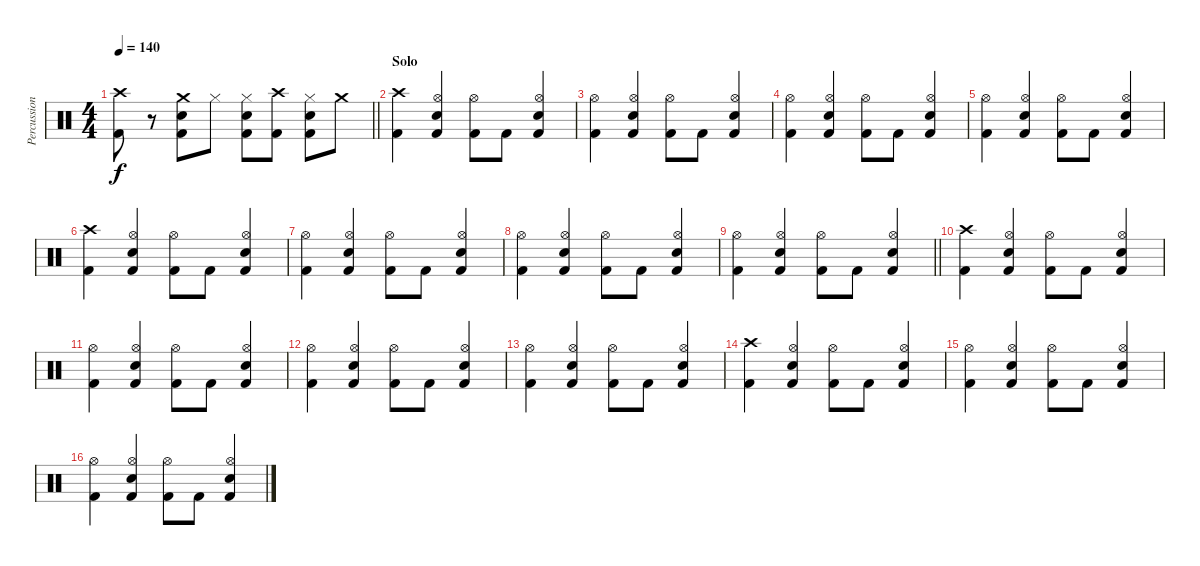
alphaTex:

\track ("Percussions" "Percussion") {instrument percussion}
\staff {score}
\articulation defaults
\ts (4 4)
\tempo 140
\clef neutral
\barLineRight lightlight
\ks c
("Crash high (hit)" "Kick (hit) 2").8{dy f} r.8 ("Crash medium (hit)" "Snare (hit) 2" "Kick (hit) 2").8 "Hi-Hat (closed)".8 ("Hi-Hat (closed)" "Snare (hit) 2" "Kick (hit) 2").8 ("Crash high (hit)" "Kick (hit) 2").8 ("Hi-Hat (closed)" "Snare (hit) 2" "Kick (hit) 2").8 "Crash medium (hit)".8 |
\section ("" "Solo")
("Crash high (hit)" "Kick (hit) 2").4 ("Hi-Hat (open)" "Electric Snare (hit)" "Kick (hit) 2").4 ("Hi-Hat (open)" "Kick (hit) 2").8 "Kick (hit) 2".8 ("Hi-Hat (open)" "Electric Snare (hit)" "Kick (hit) 2").4 |
("Hi-Hat (open)" "Kick (hit) 2").4 ("Hi-Hat (open)" "Electric Snare (hit)" "Kick (hit) 2").4 ("Hi-Hat (open)" "Kick (hit) 2").8 "Kick (hit) 2".8 ("Hi-Hat (open)" "Electric Snare (hit)" "Kick (hit) 2").4 |
("Hi-Hat (open)" "Kick (hit) 2").4 ("Hi-Hat (open)" "Electric Snare (hit)" "Kick (hit) 2").4 ("Hi-Hat (open)" "Kick (hit) 2").8 "Kick (hit) 2".8 ("Hi-Hat (open)" "Electric Snare (hit)" "Kick (hit) 2").4 |
("Hi-Hat (open)" "Kick (hit) 2").4 ("Hi-Hat (open)" "Electric Snare (hit)" "Kick (hit) 2").4 ("Hi-Hat (open)" "Kick (hit) 2").8 "Kick (hit) 2".8 ("Hi-Hat (open)" "Electric Snare (hit)" "Kick (hit) 2").4 |
("Crash high (hit)" "Kick (hit) 2").4 ("Hi-Hat (open)" "Electric Snare (hit)" "Kick (hit) 2").4 ("Hi-Hat (open)" "Kick (hit) 2").8 "Kick (hit) 2".8 ("Hi-Hat (open)" "Electric Snare (hit)" "Kick (hit) 2").4 |
("Hi-Hat (open)" "Kick (hit) 2").4 ("Hi-Hat (open)" "Electric Snare (hit)" "Kick (hit) 2").4 ("Hi-Hat (open)" "Kick (hit) 2").8 "Kick (hit) 2".8 ("Hi-Hat (open)" "Electric Snare (hit)" "Kick (hit) 2").4 |
("Hi-Hat (open)" "Kick (hit) 2").4 ("Hi-Hat (open)" "Electric Snare (hit)" "Kick (hit) 2").4 ("Hi-Hat (open)" "Kick (hit) 2").8 "Kick (hit) 2".8 ("Hi-Hat (open)" "Electric Snare (hit)" "Kick (hit) 2").4 |
\barLineRight lightlight
("Hi-Hat (open)" "Kick (hit) 2").4 ("Hi-Hat (open)" "Electric Snare (hit)" "Kick (hit) 2").4 ("Hi-Hat (open)" "Kick (hit) 2").8 "Kick (hit) 2".8 ("Hi-Hat (open)" "Electric Snare (hit)" "Kick (hit) 2").4 |
("Crash high (hit)" "Kick (hit) 2").4 ("Hi-Hat (open)" "Electric Snare (hit)" "Kick (hit) 2").4 ("Hi-Hat (open)" "Kick (hit) 2").8 "Kick (hit) 2".8 ("Hi-Hat (open)" "Electric Snare (hit)" "Kick (hit) 2").4 |
("Hi-Hat (open)" "Kick (hit) 2").4 ("Hi-Hat (open)" "Electric Snare (hit)" "Kick (hit) 2").4 ("Hi-Hat (open)" "Kick (hit) 2").8 "Kick (hit) 2".8 ("Hi-Hat (open)" "Electric Snare (hit)" "Kick (hit) 2").4 |
("Hi-Hat (open)" "Kick (hit) 2").4 ("Hi-Hat (open)" "Electric Snare (hit)" "Kick (hit) 2").4 ("Hi-Hat (open)" "Kick (hit) 2").8 "Kick (hit) 2".8 ("Hi-Hat (open)" "Electric Snare (hit)" "Kick (hit) 2").4 |
("Hi-Hat (open)" "Kick (hit) 2").4 ("Hi-Hat (open)" "Electric Snare (hit)" "Kick (hit) 2").4 ("Hi-Hat (open)" "Kick (hit) 2").8 "Kick (hit) 2".8 ("Hi-Hat (open)" "Electric Snare (hit)" "Kick (hit) 2").4 |
("Crash high (hit)" "Kick (hit) 2").4 ("Hi-Hat (open)" "Electric Snare (hit)" "Kick (hit) 2").4 ("Hi-Hat (open)" "Kick (hit) 2").8 "Kick (hit) 2".8 ("Hi-Hat (open)" "Electric Snare (hit)" "Kick (hit) 2").4 |
("Hi-Hat (open)" "Kick (hit) 2").4 ("Hi-Hat (open)" "Electric Snare (hit)" "Kick (hit) 2").4 ("Hi-Hat (open)" "Kick (hit) 2").8 "Kick (hit) 2".8 ("Hi-Hat (open)" "Electric Snare (hit)" "Kick (hit) 2").4 |
("Hi-Hat (open)" "Kick (hit) 2").4 ("Hi-Hat (open)" "Electric Snare (hit)" "Kick (hit) 2").4 ("Hi-Hat (open)" "Kick (hit) 2").8 "Kick (hit) 2".8 ("Hi-Hat (open)" "Electric Snare (hit)" "Kick (hit) 2").4
